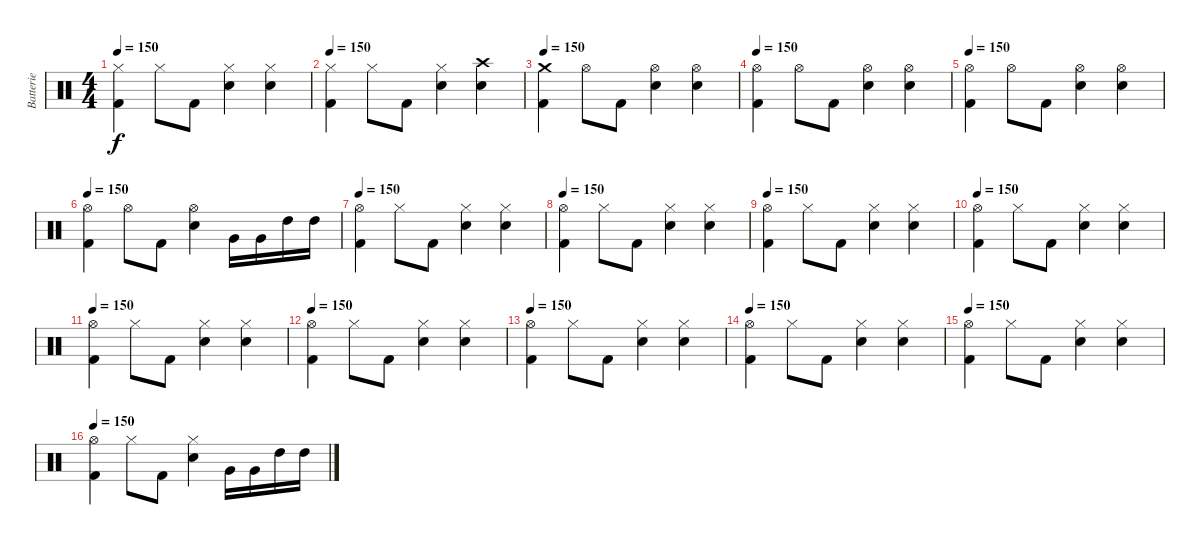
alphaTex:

\track ("Batterie" "Batterie") {instrument percussion}
\staff {score}
\articulation defaults
\ts (4 4)
\tempo 150
\clef neutral
\ks c
("Hi-Hat (closed)" "Kick (hit) 2").4{dy f} "Hi-Hat (closed)".8 "Kick (hit) 2".8 ("Hi-Hat (closed)" "Snare (hit) 2").4 ("Hi-Hat (closed)" "Snare (hit) 2").4 |
\tempo 150
("Hi-Hat (closed)" "Kick (hit) 2").4 "Hi-Hat (closed)".8 "Kick (hit) 2".8 ("Hi-Hat (closed)" "Snare (hit) 2").4 ("Crash high (hit)" "Snare (hit) 2").4 |
\tempo 150
("Crash medium (hit)" "Kick (hit) 2").4 "Hi-Hat (open)".8 "Kick (hit) 2".8 ("Hi-Hat (open)" "Snare (hit) 2").4 ("Hi-Hat (open)" "Snare (hit) 2").4 |
\tempo 150
("Hi-Hat (open)" "Kick (hit) 2").4 "Hi-Hat (open)".8 "Kick (hit) 2".8 ("Hi-Hat (open)" "Snare (hit) 2").4 ("Hi-Hat (open)" "Snare (hit) 2").4 |
\tempo 150
("Hi-Hat (open)" "Kick (hit) 2").4 "Hi-Hat (open)".8 "Kick (hit) 2".8 ("Hi-Hat (open)" "Snare (hit) 2").4 ("Hi-Hat (open)" "Snare (hit) 2").4 |
\tempo 150
("Hi-Hat (open)" "Kick (hit) 2").4 "Hi-Hat (open)".8 "Kick (hit) 2".8 ("Hi-Hat (open)" "Snare (hit) 2").4 "Very Low Tom (hit)".16 "Very Low Tom (hit)".16 "High Tom (hit)".16 "High Tom (hit)".16 |
\tempo 150
("Hi-Hat (open)" "Kick (hit) 2").4 "Hi-Hat (closed)".8 "Kick (hit) 2".8 ("Hi-Hat (closed)" "Snare (hit) 2").4 ("Hi-Hat (closed)" "Snare (hit) 2").4 |
\tempo 150
("Hi-Hat (open)" "Kick (hit) 2").4 "Hi-Hat (closed)".8 "Kick (hit) 2".8 ("Hi-Hat (closed)" "Snare (hit) 2").4 ("Hi-Hat (closed)" "Snare (hit) 2").4 |
\tempo 150
("Hi-Hat (open)" "Kick (hit) 2").4 "Hi-Hat (closed)".8 "Kick (hit) 2".8 ("Hi-Hat (closed)" "Snare (hit) 2").4 ("Hi-Hat (closed)" "Snare (hit) 2").4 |
\tempo 150
("Hi-Hat (open)" "Kick (hit) 2").4 "Hi-Hat (closed)".8 "Kick (hit) 2".8 ("Hi-Hat (closed)" "Snare (hit) 2").4 ("Hi-Hat (closed)" "Snare (hit) 2").4 |
\tempo 150
("Hi-Hat (open)" "Kick (hit) 2").4 "Hi-Hat (closed)".8 "Kick (hit) 2".8 ("Hi-Hat (closed)" "Snare (hit) 2").4 ("Hi-Hat (closed)" "Snare (hit) 2").4 |
\tempo 150
("Hi-Hat (open)" "Kick (hit) 2").4 "Hi-Hat (closed)".8 "Kick (hit) 2".8 ("Hi-Hat (closed)" "Snare (hit) 2").4 ("Hi-Hat (closed)" "Snare (hit) 2").4 |
\tempo 150
("Hi-Hat (open)" "Kick (hit) 2").4 "Hi-Hat (closed)".8 "Kick (hit) 2".8 ("Hi-Hat (closed)" "Snare (hit) 2").4 ("Hi-Hat (closed)" "Snare (hit) 2").4 |
\tempo 150
("Hi-Hat (open)" "Kick (hit) 2").4 "Hi-Hat (closed)".8 "Kick (hit) 2".8 ("Hi-Hat (closed)" "Snare (hit) 2").4 ("Hi-Hat (closed)" "Snare (hit) 2").4 |
\tempo 150
("Hi-Hat (open)" "Kick (hit) 2").4 "Hi-Hat (closed)".8 "Kick (hit) 2".8 ("Hi-Hat (closed)" "Snare (hit) 2").4 ("Hi-Hat (closed)" "Snare (hit) 2").4 |
\tempo 150
("Hi-Hat (open)" "Kick (hit) 2").4 "Hi-Hat (closed)".8 "Kick (hit) 2".8 ("Hi-Hat (closed)" "Snare (hit) 2").4 "Very Low Tom (hit)".16 "Very Low Tom (hit)".16 "High Tom (hit)".16 "High Tom (hit)".16
